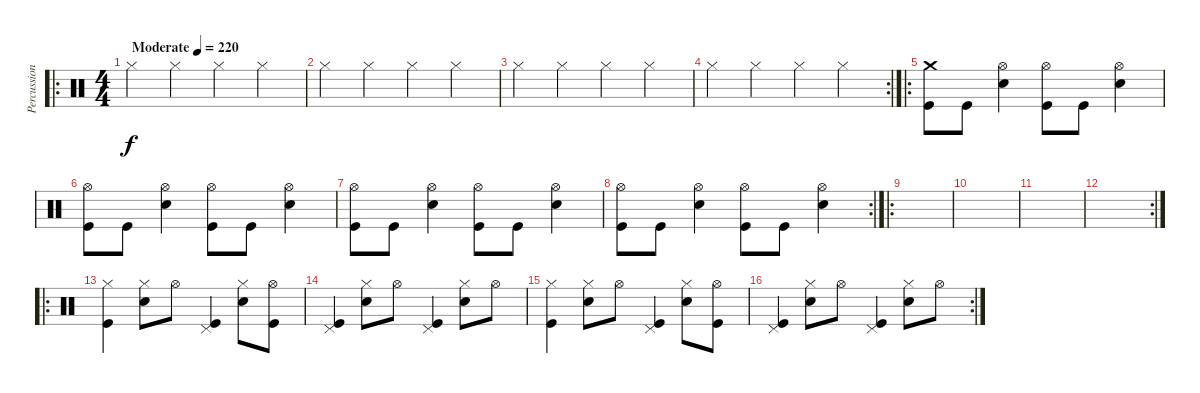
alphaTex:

\track ("Percussion" "Percussion") {instrument percussion}
\staff {score}
\articulation defaults
\ro
\ts (4 4)
\tempo (220 "Moderate")
\clef neutral
\ks c "Hi-Hat (closed)".4{dy f} "Hi-Hat (closed)".4 "Hi-Hat (closed)".4 "Hi-Hat (closed)".4
|
"Hi-Hat (closed)".4 "Hi-Hat (closed)".4 "Hi-Hat (closed)".4 "Hi-Hat (closed)".4 |
"Hi-Hat (closed)".4 "Hi-Hat (closed)".4 "Hi-Hat (closed)".4 "Hi-Hat (closed)".4 |
\rc 2 "Hi-Hat (closed)".4 "Hi-Hat (closed)".4 "Hi-Hat (closed)".4 "Hi-Hat (closed)".4
|
\ro
("Crash medium (hit)" "Kick (hit)").8 "Kick (hit)".8 ("Hi-Hat (open)" "Snare (hit) 2").4 ("Hi-Hat (open)" "Kick (hit)").8 "Kick (hit)".8 ("Hi-Hat (open)" "Snare (hit) 2").4 |
("Hi-Hat (open)" "Kick (hit)").8 "Kick (hit)".8 ("Hi-Hat (open)" "Snare (hit) 2").4 ("Hi-Hat (open)" "Kick (hit)").8 "Kick (hit)".8 ("Hi-Hat (open)" "Snare (hit) 2").4 |
("Hi-Hat (open)" "Kick (hit)").8 "Kick (hit)".8 ("Hi-Hat (open)" "Snare (hit) 2").4 ("Hi-Hat (open)" "Kick (hit)").8 "Kick (hit)".8 ("Hi-Hat (open)" "Snare (hit) 2").4 |
\rc 2
("Hi-Hat (open)" "Kick (hit)").8 "Kick (hit)".8 ("Hi-Hat (open)" "Snare (hit) 2").4 ("Hi-Hat (open)" "Kick (hit)").8 "Kick (hit)".8 ("Hi-Hat (open)" "Snare (hit) 2").4 |
\ro
|
|
|
\rc 2
|
\ro
("Hi-Hat (closed)" "Kick (hit)").4 ("Hi-Hat (closed)" "Snare (hit) 2").8 "Hi-Hat (open)".8 ("Pedal Hi-Hat (hit)" "Kick (hit)").4 ("Hi-Hat (closed)" "Snare (hit) 2").8 ("Hi-Hat (open)" "Kick (hit)").8 |
("Pedal Hi-Hat (hit)" "Kick (hit)").4 ("Hi-Hat (closed)" "Snare (hit) 2").8 "Hi-Hat (open)".8 ("Pedal Hi-Hat (hit)" "Kick (hit)").4 ("Hi-Hat (closed)" "Snare (hit) 2").8 "Hi-Hat (open)".8 |
("Hi-Hat (closed)" "Kick (hit)").4 ("Hi-Hat (closed)" "Snare (hit) 2").8 "Hi-Hat (open)".8 ("Pedal Hi-Hat (hit)" "Kick (hit)").4 ("Hi-Hat (closed)" "Snare (hit) 2").8 ("Hi-Hat (open)" "Kick (hit)").8 |
\rc 2
("Pedal Hi-Hat (hit)" "Kick (hit)").4 ("Hi-Hat (closed)" "Snare (hit) 2").8 "Hi-Hat (open)".8 ("Pedal Hi-Hat (hit)" "Kick (hit)").4 ("Hi-Hat (closed)" "Snare (hit) 2").8 "Hi-Hat (open)".8
